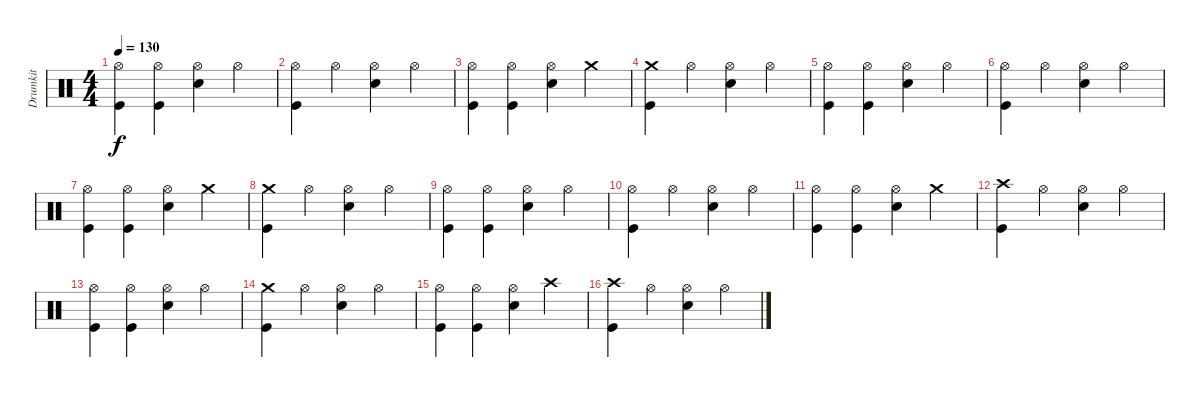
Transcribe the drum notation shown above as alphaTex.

\track ("Drumkit" "Drumkit") {instrument percussion}
\staff {score}
\articulation defaults
\ts (4 4)
\tempo 130
\clef neutral
\ks c
("Hi-Hat (open)" "Kick (hit)").4{dy f} ("Hi-Hat (open)" "Kick (hit)").4 ("Hi-Hat (open)" "Snare (hit) 2").4 "Hi-Hat (open)".4 |
("Hi-Hat (open)" "Kick (hit)").4 "Hi-Hat (open)".4 ("Hi-Hat (open)" "Snare (hit) 2").4 "Hi-Hat (open)".4 |
("Hi-Hat (open)" "Kick (hit)").4 ("Hi-Hat (open)" "Kick (hit)").4 ("Hi-Hat (open)" "Snare (hit) 2").4 "Crash medium (hit)".4 |
("Crash medium (hit)" "Kick (hit)").4 "Hi-Hat (open)".4 ("Hi-Hat (open)" "Snare (hit) 2").4 "Hi-Hat (open)".4 |
("Hi-Hat (open)" "Kick (hit)").4 ("Hi-Hat (open)" "Kick (hit)").4 ("Hi-Hat (open)" "Snare (hit) 2").4 "Hi-Hat (open)".4 |
("Hi-Hat (open)" "Kick (hit)").4 "Hi-Hat (open)".4 ("Hi-Hat (open)" "Snare (hit) 2").4 "Hi-Hat (open)".4 |
("Hi-Hat (open)" "Kick (hit)").4 ("Hi-Hat (open)" "Kick (hit)").4 ("Hi-Hat (open)" "Snare (hit) 2").4 "Crash medium (hit)".4 |
("Crash medium (hit)" "Kick (hit)").4 "Hi-Hat (open)".4 ("Hi-Hat (open)" "Snare (hit) 2").4 "Hi-Hat (open)".4 |
("Hi-Hat (open)" "Kick (hit)").4 ("Hi-Hat (open)" "Kick (hit)").4 ("Hi-Hat (open)" "Snare (hit) 2").4 "Hi-Hat (open)".4 |
("Hi-Hat (open)" "Kick (hit)").4 "Hi-Hat (open)".4 ("Hi-Hat (open)" "Snare (hit) 2").4 "Hi-Hat (open)".4 |
("Hi-Hat (open)" "Kick (hit)").4 ("Hi-Hat (open)" "Kick (hit)").4 ("Hi-Hat (open)" "Snare (hit) 2").4 "Crash medium (hit)".4 |
("Crash high (hit)" "Kick (hit)").4 "Hi-Hat (open)".4 ("Hi-Hat (open)" "Snare (hit) 2").4 "Hi-Hat (open)".4 |
("Hi-Hat (open)" "Kick (hit)").4 ("Hi-Hat (open)" "Kick (hit)").4 ("Hi-Hat (open)" "Snare (hit) 2").4 "Hi-Hat (open)".4 |
("Crash medium (hit)" "Kick (hit)").4 "Hi-Hat (open)".4 ("Hi-Hat (open)" "Snare (hit) 2").4 "Hi-Hat (open)".4 |
("Hi-Hat (open)" "Kick (hit)").4 ("Hi-Hat (open)" "Kick (hit)").4 ("Hi-Hat (open)" "Snare (hit) 2").4 "Crash high (hit)".4 |
("Crash high (hit)" "Kick (hit)").4 "Hi-Hat (open)".4 ("Hi-Hat (open)" "Snare (hit) 2").4 "Hi-Hat (open)".4
